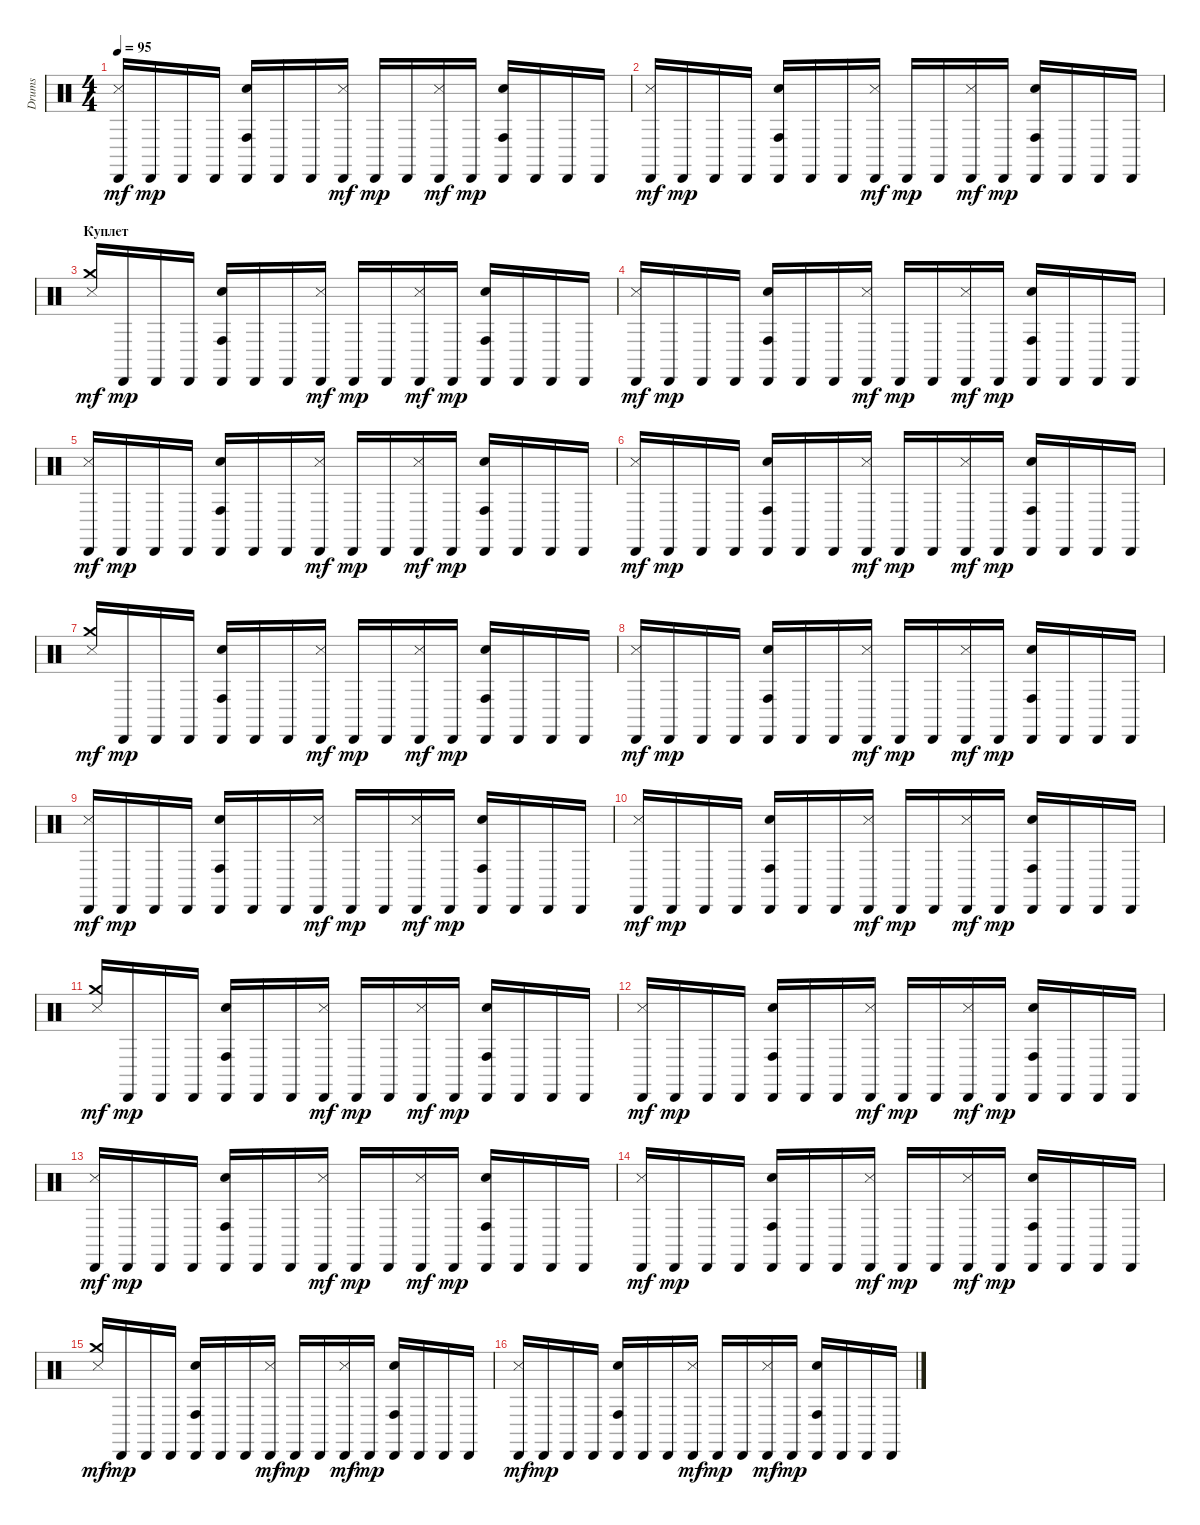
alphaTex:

\track ("Drums" "Drums") {instrument percussion}
\staff {score}
\articulation defaults
\ts (4 4)
\tempo 95
\clef neutral
\ks c
("Cabasa (hit)" "Metronome (hit)").16{dy mf} "Cabasa (hit)".16{dy mp} "Cabasa (hit)".16 "Cabasa (hit)".16 ("Cabasa (hit)" "Electric Snare (hit)" "Conga high (hit)").16 "Cabasa (hit)".16 "Cabasa (hit)".16 ("Cabasa (hit)" "Metronome (hit)").16{dy mf} "Cabasa (hit)".16{dy mp} "Cabasa (hit)".16 ("Cabasa (hit)" "Metronome (hit)").16{dy mf} "Cabasa (hit)".16{dy mp} ("Cabasa (hit)" "Electric Snare (hit)" "Conga high (hit)").16 "Cabasa (hit)".16 "Cabasa (hit)".16 "Cabasa (hit)".16 |
("Cabasa (hit)" "Metronome (hit)").16{dy mf} "Cabasa (hit)".16{dy mp} "Cabasa (hit)".16 "Cabasa (hit)".16 ("Cabasa (hit)" "Electric Snare (hit)" "Conga high (hit)").16 "Cabasa (hit)".16 "Cabasa (hit)".16 ("Cabasa (hit)" "Metronome (hit)").16{dy mf} "Cabasa (hit)".16{dy mp} "Cabasa (hit)".16 ("Cabasa (hit)" "Metronome (hit)").16{dy mf} "Cabasa (hit)".16{dy mp} ("Cabasa (hit)" "Electric Snare (hit)" "Conga high (hit)").16 "Cabasa (hit)".16 "Cabasa (hit)".16 "Cabasa (hit)".16 |
\section ("" "Куплет")
("Crash medium (hit)" "Metronome (hit)").16{dy mf} "Cabasa (hit)".16{dy mp} "Cabasa (hit)".16 "Cabasa (hit)".16 ("Cabasa (hit)" "Electric Snare (hit)" "Conga high (hit)").16 "Cabasa (hit)".16 "Cabasa (hit)".16 ("Cabasa (hit)" "Metronome (hit)").16{dy mf} "Cabasa (hit)".16{dy mp} "Cabasa (hit)".16 ("Cabasa (hit)" "Metronome (hit)").16{dy mf} "Cabasa (hit)".16{dy mp} ("Cabasa (hit)" "Electric Snare (hit)" "Conga high (hit)").16 "Cabasa (hit)".16 "Cabasa (hit)".16 "Cabasa (hit)".16 |
("Cabasa (hit)" "Metronome (hit)").16{dy mf} "Cabasa (hit)".16{dy mp} "Cabasa (hit)".16 "Cabasa (hit)".16 ("Cabasa (hit)" "Electric Snare (hit)" "Conga high (hit)").16 "Cabasa (hit)".16 "Cabasa (hit)".16 ("Cabasa (hit)" "Metronome (hit)").16{dy mf} "Cabasa (hit)".16{dy mp} "Cabasa (hit)".16 ("Cabasa (hit)" "Metronome (hit)").16{dy mf} "Cabasa (hit)".16{dy mp} ("Cabasa (hit)" "Electric Snare (hit)" "Conga high (hit)").16 "Cabasa (hit)".16 "Cabasa (hit)".16 "Cabasa (hit)".16 |
("Cabasa (hit)" "Metronome (hit)").16{dy mf} "Cabasa (hit)".16{dy mp} "Cabasa (hit)".16 "Cabasa (hit)".16 ("Cabasa (hit)" "Electric Snare (hit)" "Conga high (hit)").16 "Cabasa (hit)".16 "Cabasa (hit)".16 ("Cabasa (hit)" "Metronome (hit)").16{dy mf} "Cabasa (hit)".16{dy mp} "Cabasa (hit)".16 ("Cabasa (hit)" "Metronome (hit)").16{dy mf} "Cabasa (hit)".16{dy mp} ("Cabasa (hit)" "Electric Snare (hit)" "Conga high (hit)").16 "Cabasa (hit)".16 "Cabasa (hit)".16 "Cabasa (hit)".16 |
("Cabasa (hit)" "Metronome (hit)").16{dy mf} "Cabasa (hit)".16{dy mp} "Cabasa (hit)".16 "Cabasa (hit)".16 ("Cabasa (hit)" "Electric Snare (hit)" "Conga high (hit)").16 "Cabasa (hit)".16 "Cabasa (hit)".16 ("Cabasa (hit)" "Metronome (hit)").16{dy mf} "Cabasa (hit)".16{dy mp} "Cabasa (hit)".16 ("Cabasa (hit)" "Metronome (hit)").16{dy mf} "Cabasa (hit)".16{dy mp} ("Cabasa (hit)" "Electric Snare (hit)" "Conga high (hit)").16 "Cabasa (hit)".16 "Cabasa (hit)".16 "Cabasa (hit)".16 |
("Crash medium (hit)" "Metronome (hit)").16{dy mf} "Cabasa (hit)".16{dy mp} "Cabasa (hit)".16 "Cabasa (hit)".16 ("Cabasa (hit)" "Electric Snare (hit)" "Conga high (hit)").16 "Cabasa (hit)".16 "Cabasa (hit)".16 ("Cabasa (hit)" "Metronome (hit)").16{dy mf} "Cabasa (hit)".16{dy mp} "Cabasa (hit)".16 ("Cabasa (hit)" "Metronome (hit)").16{dy mf} "Cabasa (hit)".16{dy mp} ("Cabasa (hit)" "Electric Snare (hit)" "Conga high (hit)").16 "Cabasa (hit)".16 "Cabasa (hit)".16 "Cabasa (hit)".16 |
("Cabasa (hit)" "Metronome (hit)").16{dy mf} "Cabasa (hit)".16{dy mp} "Cabasa (hit)".16 "Cabasa (hit)".16 ("Cabasa (hit)" "Electric Snare (hit)" "Conga high (hit)").16 "Cabasa (hit)".16 "Cabasa (hit)".16 ("Cabasa (hit)" "Metronome (hit)").16{dy mf} "Cabasa (hit)".16{dy mp} "Cabasa (hit)".16 ("Cabasa (hit)" "Metronome (hit)").16{dy mf} "Cabasa (hit)".16{dy mp} ("Cabasa (hit)" "Electric Snare (hit)" "Conga high (hit)").16 "Cabasa (hit)".16 "Cabasa (hit)".16 "Cabasa (hit)".16 |
("Cabasa (hit)" "Metronome (hit)").16{dy mf} "Cabasa (hit)".16{dy mp} "Cabasa (hit)".16 "Cabasa (hit)".16 ("Cabasa (hit)" "Electric Snare (hit)" "Conga high (hit)").16 "Cabasa (hit)".16 "Cabasa (hit)".16 ("Cabasa (hit)" "Metronome (hit)").16{dy mf} "Cabasa (hit)".16{dy mp} "Cabasa (hit)".16 ("Cabasa (hit)" "Metronome (hit)").16{dy mf} "Cabasa (hit)".16{dy mp} ("Cabasa (hit)" "Electric Snare (hit)" "Conga high (hit)").16 "Cabasa (hit)".16 "Cabasa (hit)".16 "Cabasa (hit)".16 |
("Cabasa (hit)" "Metronome (hit)").16{dy mf} "Cabasa (hit)".16{dy mp} "Cabasa (hit)".16 "Cabasa (hit)".16 ("Cabasa (hit)" "Electric Snare (hit)" "Conga high (hit)").16 "Cabasa (hit)".16 "Cabasa (hit)".16 ("Cabasa (hit)" "Metronome (hit)").16{dy mf} "Cabasa (hit)".16{dy mp} "Cabasa (hit)".16 ("Cabasa (hit)" "Metronome (hit)").16{dy mf} "Cabasa (hit)".16{dy mp} ("Cabasa (hit)" "Electric Snare (hit)" "Conga high (hit)").16 "Cabasa (hit)".16 "Cabasa (hit)".16 "Cabasa (hit)".16 |
("Crash medium (hit)" "Metronome (hit)").16{dy mf} "Cabasa (hit)".16{dy mp} "Cabasa (hit)".16 "Cabasa (hit)".16 ("Cabasa (hit)" "Electric Snare (hit)" "Conga high (hit)").16 "Cabasa (hit)".16 "Cabasa (hit)".16 ("Cabasa (hit)" "Metronome (hit)").16{dy mf} "Cabasa (hit)".16{dy mp} "Cabasa (hit)".16 ("Cabasa (hit)" "Metronome (hit)").16{dy mf} "Cabasa (hit)".16{dy mp} ("Cabasa (hit)" "Electric Snare (hit)" "Conga high (hit)").16 "Cabasa (hit)".16 "Cabasa (hit)".16 "Cabasa (hit)".16 |
("Cabasa (hit)" "Metronome (hit)").16{dy mf} "Cabasa (hit)".16{dy mp} "Cabasa (hit)".16 "Cabasa (hit)".16 ("Cabasa (hit)" "Electric Snare (hit)" "Conga high (hit)").16 "Cabasa (hit)".16 "Cabasa (hit)".16 ("Cabasa (hit)" "Metronome (hit)").16{dy mf} "Cabasa (hit)".16{dy mp} "Cabasa (hit)".16 ("Cabasa (hit)" "Metronome (hit)").16{dy mf} "Cabasa (hit)".16{dy mp} ("Cabasa (hit)" "Electric Snare (hit)" "Conga high (hit)").16 "Cabasa (hit)".16 "Cabasa (hit)".16 "Cabasa (hit)".16 |
("Cabasa (hit)" "Metronome (hit)").16{dy mf} "Cabasa (hit)".16{dy mp} "Cabasa (hit)".16 "Cabasa (hit)".16 ("Cabasa (hit)" "Electric Snare (hit)" "Conga high (hit)").16 "Cabasa (hit)".16 "Cabasa (hit)".16 ("Cabasa (hit)" "Metronome (hit)").16{dy mf} "Cabasa (hit)".16{dy mp} "Cabasa (hit)".16 ("Cabasa (hit)" "Metronome (hit)").16{dy mf} "Cabasa (hit)".16{dy mp} ("Cabasa (hit)" "Electric Snare (hit)" "Conga high (hit)").16 "Cabasa (hit)".16 "Cabasa (hit)".16 "Cabasa (hit)".16 |
("Cabasa (hit)" "Metronome (hit)").16{dy mf} "Cabasa (hit)".16{dy mp} "Cabasa (hit)".16 "Cabasa (hit)".16 ("Cabasa (hit)" "Electric Snare (hit)" "Conga high (hit)").16 "Cabasa (hit)".16 "Cabasa (hit)".16 ("Cabasa (hit)" "Metronome (hit)").16{dy mf} "Cabasa (hit)".16{dy mp} "Cabasa (hit)".16 ("Cabasa (hit)" "Metronome (hit)").16{dy mf} "Cabasa (hit)".16{dy mp} ("Cabasa (hit)" "Electric Snare (hit)" "Conga high (hit)").16 "Cabasa (hit)".16 "Cabasa (hit)".16 "Cabasa (hit)".16 |
("Crash medium (hit)" "Metronome (hit)").16{dy mf} "Cabasa (hit)".16{dy mp} "Cabasa (hit)".16 "Cabasa (hit)".16 ("Cabasa (hit)" "Electric Snare (hit)" "Conga high (hit)").16 "Cabasa (hit)".16 "Cabasa (hit)".16 ("Cabasa (hit)" "Metronome (hit)").16{dy mf} "Cabasa (hit)".16{dy mp} "Cabasa (hit)".16 ("Cabasa (hit)" "Metronome (hit)").16{dy mf} "Cabasa (hit)".16{dy mp} ("Cabasa (hit)" "Electric Snare (hit)" "Conga high (hit)").16 "Cabasa (hit)".16 "Cabasa (hit)".16 "Cabasa (hit)".16 |
("Cabasa (hit)" "Metronome (hit)").16{dy mf} "Cabasa (hit)".16{dy mp} "Cabasa (hit)".16 "Cabasa (hit)".16 ("Cabasa (hit)" "Electric Snare (hit)" "Conga high (hit)").16 "Cabasa (hit)".16 "Cabasa (hit)".16 ("Cabasa (hit)" "Metronome (hit)").16{dy mf} "Cabasa (hit)".16{dy mp} "Cabasa (hit)".16 ("Cabasa (hit)" "Metronome (hit)").16{dy mf} "Cabasa (hit)".16{dy mp} ("Cabasa (hit)" "Electric Snare (hit)" "Conga high (hit)").16 "Cabasa (hit)".16 "Cabasa (hit)".16 "Cabasa (hit)".16
